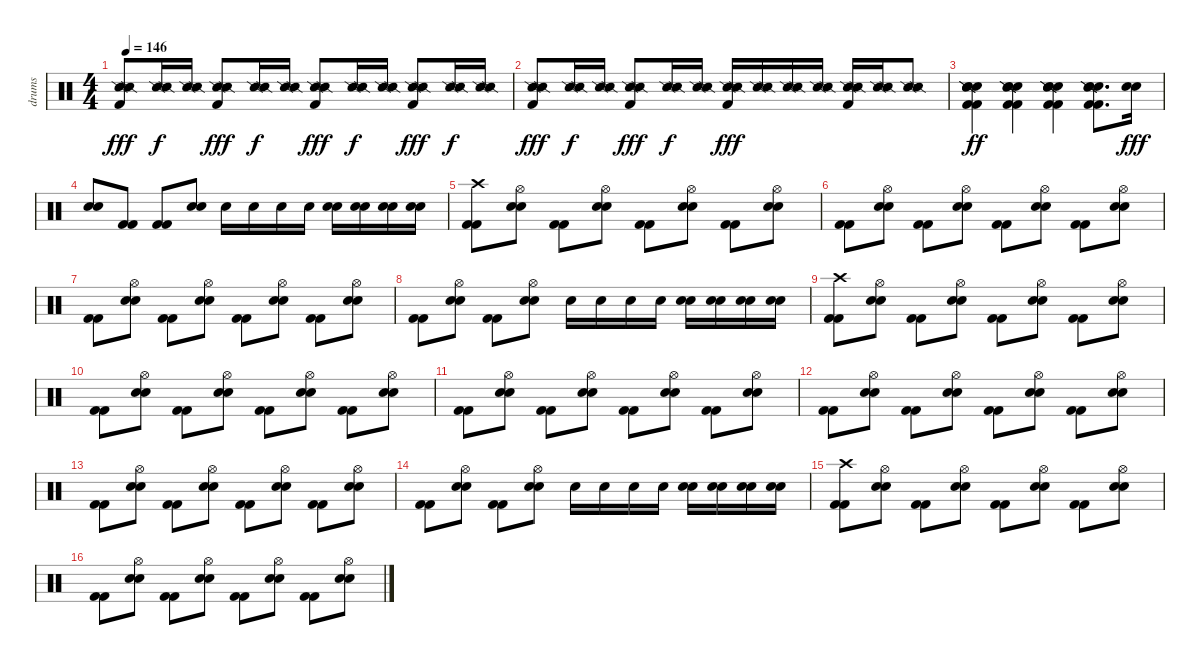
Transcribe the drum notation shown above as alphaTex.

\track ("drums" "drums") {instrument percussion}
\staff {score}
\articulation defaults
\ts (4 4)
\tempo 146
\clef neutral
\ks c
("Snare (side stick) 2" "Snare (side stick) 2" "Kick (hit) 2").8{dy fff} ("Snare (side stick) 2" "Snare (side stick) 2").16{dy f} ("Snare (side stick) 2" "Snare (side stick) 2").16 ("Snare (side stick) 2" "Snare (side stick) 2" "Kick (hit) 2").8{dy fff} ("Snare (side stick) 2" "Snare (side stick) 2").16{dy f} ("Snare (side stick) 2" "Snare (side stick) 2").16 ("Snare (side stick) 2" "Snare (side stick) 2" "Kick (hit) 2").8{dy fff} ("Snare (side stick) 2" "Snare (side stick) 2").16{dy f} ("Snare (side stick) 2" "Snare (side stick) 2").16 ("Snare (side stick) 2" "Snare (side stick) 2" "Kick (hit) 2").8{dy fff} ("Snare (side stick) 2" "Snare (side stick) 2").16{dy f} ("Snare (side stick) 2" "Snare (side stick) 2").16 |
("Snare (side stick) 2" "Snare (side stick) 2" "Kick (hit) 2").8{dy fff} ("Snare (side stick) 2" "Snare (side stick) 2").16{dy f} ("Snare (side stick) 2" "Snare (side stick) 2").16 ("Snare (side stick) 2" "Snare (side stick) 2" "Kick (hit) 2").8{dy fff} ("Snare (side stick) 2" "Snare (side stick) 2").16{dy f} ("Snare (side stick) 2" "Snare (side stick) 2").16 ("Snare (side stick) 2" "Snare (side stick) 2" "Kick (hit) 2").16{dy fff} ("Snare (side stick) 2" "Snare (side stick) 2").16 ("Snare (side stick) 2" "Snare (side stick) 2").16 ("Snare (side stick) 2" "Snare (side stick) 2").16 ("Snare (side stick) 2" "Snare (side stick) 2" "Kick (hit) 2").16 ("Snare (side stick) 2" "Snare (side stick) 2").16 ("Snare (side stick) 2" "Snare (side stick) 2").8 |
("Electric Snare (hit)" "Electric Snare (hit)" "Snare (side stick) 2" "Snare (side stick) 2" "Kick (hit) 2" "Kick (hit) 2").4{dy ff} ("Electric Snare (hit)" "Electric Snare (hit)" "Snare (side stick) 2" "Snare (side stick) 2" "Kick (hit) 2" "Kick (hit) 2").4 ("Electric Snare (hit)" "Electric Snare (hit)" "Snare (side stick) 2" "Snare (side stick) 2" "Kick (hit) 2" "Kick (hit) 2").4 ("Electric Snare (hit)" "Electric Snare (hit)" "Snare (side stick) 2" "Snare (side stick) 2" "Kick (hit) 2" "Kick (hit) 2").8{d} ("Electric Snare (hit)" "Electric Snare (hit)").16{dy fff} |
("Electric Snare (hit)" "Electric Snare (hit)").8 ("Kick (hit) 2" "Kick (hit) 2").8 ("Kick (hit) 2" "Kick (hit) 2").8 ("Electric Snare (hit)" "Electric Snare (hit)").8 "Electric Snare (hit)".16 "Electric Snare (hit)".16 "Electric Snare (hit)".16 "Electric Snare (hit)".16 ("Electric Snare (hit)" "Electric Snare (hit)").16 ("Electric Snare (hit)" "Electric Snare (hit)").16 ("Electric Snare (hit)" "Electric Snare (hit)").16 ("Electric Snare (hit)" "Electric Snare (hit)").16 |
("Crash high (hit)" "Kick (hit) 2" "Kick (hit) 2").8 ("Hi-Hat (open)" "Electric Snare (hit)" "Electric Snare (hit)").8 ("Kick (hit) 2" "Kick (hit) 2").8 ("Hi-Hat (open)" "Electric Snare (hit)" "Electric Snare (hit)").8 ("Kick (hit) 2" "Kick (hit) 2").8 ("Hi-Hat (open)" "Electric Snare (hit)" "Electric Snare (hit)").8 ("Kick (hit) 2" "Kick (hit) 2").8 ("Hi-Hat (open)" "Electric Snare (hit)" "Electric Snare (hit)").8 |
("Kick (hit) 2" "Kick (hit) 2").8 ("Hi-Hat (open)" "Electric Snare (hit)" "Electric Snare (hit)").8 ("Kick (hit) 2" "Kick (hit) 2").8 ("Hi-Hat (open)" "Electric Snare (hit)" "Electric Snare (hit)").8 ("Kick (hit) 2" "Kick (hit) 2").8 ("Hi-Hat (open)" "Electric Snare (hit)" "Electric Snare (hit)").8 ("Kick (hit) 2" "Kick (hit) 2").8 ("Hi-Hat (open)" "Electric Snare (hit)" "Electric Snare (hit)").8 |
("Kick (hit) 2" "Kick (hit) 2").8 ("Hi-Hat (open)" "Electric Snare (hit)" "Electric Snare (hit)").8 ("Kick (hit) 2" "Kick (hit) 2").8 ("Hi-Hat (open)" "Electric Snare (hit)" "Electric Snare (hit)").8 ("Kick (hit) 2" "Kick (hit) 2").8 ("Hi-Hat (open)" "Electric Snare (hit)" "Electric Snare (hit)").8 ("Kick (hit) 2" "Kick (hit) 2").8 ("Hi-Hat (open)" "Electric Snare (hit)" "Electric Snare (hit)").8 |
("Kick (hit) 2" "Kick (hit) 2").8 ("Hi-Hat (open)" "Electric Snare (hit)" "Electric Snare (hit)").8 ("Kick (hit) 2" "Kick (hit) 2").8 ("Hi-Hat (open)" "Electric Snare (hit)" "Electric Snare (hit)").8 "Electric Snare (hit)".16 "Electric Snare (hit)".16 "Electric Snare (hit)".16 "Electric Snare (hit)".16 ("Electric Snare (hit)" "Electric Snare (hit)").16 ("Electric Snare (hit)" "Electric Snare (hit)").16 ("Electric Snare (hit)" "Electric Snare (hit)").16 ("Electric Snare (hit)" "Electric Snare (hit)").16 |
("Crash high (hit)" "Kick (hit) 2" "Kick (hit) 2").8 ("Hi-Hat (open)" "Electric Snare (hit)" "Electric Snare (hit)").8 ("Kick (hit) 2" "Kick (hit) 2").8 ("Hi-Hat (open)" "Electric Snare (hit)" "Electric Snare (hit)").8 ("Kick (hit) 2" "Kick (hit) 2").8 ("Hi-Hat (open)" "Electric Snare (hit)" "Electric Snare (hit)").8 ("Kick (hit) 2" "Kick (hit) 2").8 ("Hi-Hat (open)" "Electric Snare (hit)" "Electric Snare (hit)").8 |
("Kick (hit) 2" "Kick (hit) 2").8 ("Hi-Hat (open)" "Electric Snare (hit)" "Electric Snare (hit)").8 ("Kick (hit) 2" "Kick (hit) 2").8 ("Hi-Hat (open)" "Electric Snare (hit)" "Electric Snare (hit)").8 ("Kick (hit) 2" "Kick (hit) 2").8 ("Hi-Hat (open)" "Electric Snare (hit)" "Electric Snare (hit)").8 ("Kick (hit) 2" "Kick (hit) 2").8 ("Hi-Hat (open)" "Electric Snare (hit)" "Electric Snare (hit)").8 |
("Kick (hit) 2" "Kick (hit) 2").8 ("Hi-Hat (open)" "Electric Snare (hit)" "Electric Snare (hit)").8 ("Kick (hit) 2" "Kick (hit) 2").8 ("Hi-Hat (open)" "Electric Snare (hit)" "Electric Snare (hit)").8 ("Kick (hit) 2" "Kick (hit) 2").8 ("Hi-Hat (open)" "Electric Snare (hit)" "Electric Snare (hit)").8 ("Kick (hit) 2" "Kick (hit) 2").8 ("Hi-Hat (open)" "Electric Snare (hit)" "Electric Snare (hit)").8 |
("Kick (hit) 2" "Kick (hit) 2").8 ("Hi-Hat (open)" "Electric Snare (hit)" "Electric Snare (hit)").8 ("Kick (hit) 2" "Kick (hit) 2").8 ("Hi-Hat (open)" "Electric Snare (hit)" "Electric Snare (hit)").8 ("Kick (hit) 2" "Kick (hit) 2").8 ("Hi-Hat (open)" "Electric Snare (hit)" "Electric Snare (hit)").8 ("Kick (hit) 2" "Kick (hit) 2").8 ("Hi-Hat (open)" "Electric Snare (hit)" "Electric Snare (hit)").8 |
("Kick (hit) 2" "Kick (hit) 2").8 ("Hi-Hat (open)" "Electric Snare (hit)" "Electric Snare (hit)").8 ("Kick (hit) 2" "Kick (hit) 2").8 ("Hi-Hat (open)" "Electric Snare (hit)" "Electric Snare (hit)").8 ("Kick (hit) 2" "Kick (hit) 2").8 ("Hi-Hat (open)" "Electric Snare (hit)" "Electric Snare (hit)").8 ("Kick (hit) 2" "Kick (hit) 2").8 ("Hi-Hat (open)" "Electric Snare (hit)" "Electric Snare (hit)").8 |
("Kick (hit) 2" "Kick (hit) 2").8 ("Hi-Hat (open)" "Electric Snare (hit)" "Electric Snare (hit)").8 ("Kick (hit) 2" "Kick (hit) 2").8 ("Hi-Hat (open)" "Electric Snare (hit)" "Electric Snare (hit)").8 "Electric Snare (hit)".16 "Electric Snare (hit)".16 "Electric Snare (hit)".16 "Electric Snare (hit)".16 ("Electric Snare (hit)" "Electric Snare (hit)").16 ("Electric Snare (hit)" "Electric Snare (hit)").16 ("Electric Snare (hit)" "Electric Snare (hit)").16 ("Electric Snare (hit)" "Electric Snare (hit)").16 |
("Crash high (hit)" "Kick (hit) 2" "Kick (hit) 2").8 ("Hi-Hat (open)" "Electric Snare (hit)" "Electric Snare (hit)").8 ("Kick (hit) 2" "Kick (hit) 2").8 ("Hi-Hat (open)" "Electric Snare (hit)" "Electric Snare (hit)").8 ("Kick (hit) 2" "Kick (hit) 2").8 ("Hi-Hat (open)" "Electric Snare (hit)" "Electric Snare (hit)").8 ("Kick (hit) 2" "Kick (hit) 2").8 ("Hi-Hat (open)" "Electric Snare (hit)" "Electric Snare (hit)").8 |
("Kick (hit) 2" "Kick (hit) 2").8 ("Hi-Hat (open)" "Electric Snare (hit)" "Electric Snare (hit)").8 ("Kick (hit) 2" "Kick (hit) 2").8 ("Hi-Hat (open)" "Electric Snare (hit)" "Electric Snare (hit)").8 ("Kick (hit) 2" "Kick (hit) 2").8 ("Hi-Hat (open)" "Electric Snare (hit)" "Electric Snare (hit)").8 ("Kick (hit) 2" "Kick (hit) 2").8 ("Hi-Hat (open)" "Electric Snare (hit)" "Electric Snare (hit)").8
